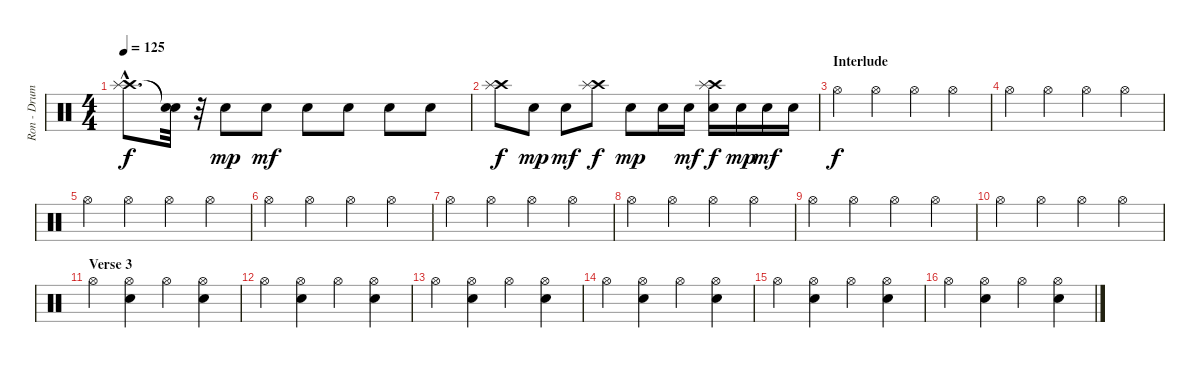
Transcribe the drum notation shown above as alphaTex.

\track ("Ron - Drums" "Ron - Drum") {instrument percussion}
\staff {score}
\articulation defaults
\ts (4 4)
\tempo 125
\clef neutral
\ks c
("Crash high (hit)"{hac} "Splash (hit)"{hac}).8{d dy f} ("Snare (hit)"{t} "Snare (hit)"{t}).32 r.32 "Electric Snare (hit)".8{dy mp} "Electric Snare (hit)".8{dy mf} "Electric Snare (hit)".8 "Electric Snare (hit)".8 "Electric Snare (hit)".8 "Electric Snare (hit)".8 |
("Crash high (hit)" "Splash (hit)").8{dy f} "Electric Snare (hit)".8{dy mp} "Electric Snare (hit)".8{dy mf} ("Crash high (hit)" "Splash (hit)").8{dy f} "Electric Snare (hit)".8{dy mp} "Electric Snare (hit)".16 "Electric Snare (hit)".16{dy mf} ("Crash high (hit)" "Electric Snare (hit)" "Splash (hit)").16{dy f} "Electric Snare (hit)".16{dy mp} "Electric Snare (hit)".16{dy mf} "Electric Snare (hit)".16 |
\section ("" "Interlude")
"Hi-Hat (open)".4{dy f} "Hi-Hat (open)".4 "Hi-Hat (open)".4 "Hi-Hat (open)".4 |
"Hi-Hat (open)".4 "Hi-Hat (open)".4 "Hi-Hat (open)".4 "Hi-Hat (open)".4 |
"Hi-Hat (open)".4 "Hi-Hat (open)".4 "Hi-Hat (open)".4 "Hi-Hat (open)".4 |
"Hi-Hat (open)".4 "Hi-Hat (open)".4 "Hi-Hat (open)".4 "Hi-Hat (open)".4 |
"Hi-Hat (open)".4 "Hi-Hat (open)".4 "Hi-Hat (open)".4 "Hi-Hat (open)".4 |
"Hi-Hat (open)".4 "Hi-Hat (open)".4 "Hi-Hat (open)".4 "Hi-Hat (open)".4 |
"Hi-Hat (open)".4 "Hi-Hat (open)".4 "Hi-Hat (open)".4 "Hi-Hat (open)".4 |
"Hi-Hat (open)".4 "Hi-Hat (open)".4 "Hi-Hat (open)".4 "Hi-Hat (open)".4 |
\section ("" "Verse 3")
"Hi-Hat (open)".4 ("Hi-Hat (open)" "Electric Snare (hit)").4 "Hi-Hat (open)".4 ("Hi-Hat (open)" "Electric Snare (hit)").4 |
"Hi-Hat (open)".4 ("Hi-Hat (open)" "Electric Snare (hit)").4 "Hi-Hat (open)".4 ("Hi-Hat (open)" "Electric Snare (hit)").4 |
"Hi-Hat (open)".4 ("Hi-Hat (open)" "Electric Snare (hit)").4 "Hi-Hat (open)".4 ("Hi-Hat (open)" "Electric Snare (hit)").4 |
"Hi-Hat (open)".4 ("Hi-Hat (open)" "Electric Snare (hit)").4 "Hi-Hat (open)".4 ("Hi-Hat (open)" "Electric Snare (hit)").4 |
"Hi-Hat (open)".4 ("Hi-Hat (open)" "Electric Snare (hit)").4 "Hi-Hat (open)".4 ("Hi-Hat (open)" "Electric Snare (hit)").4 |
"Hi-Hat (open)".4 ("Hi-Hat (open)" "Electric Snare (hit)").4 "Hi-Hat (open)".4 ("Hi-Hat (open)" "Electric Snare (hit)").4
